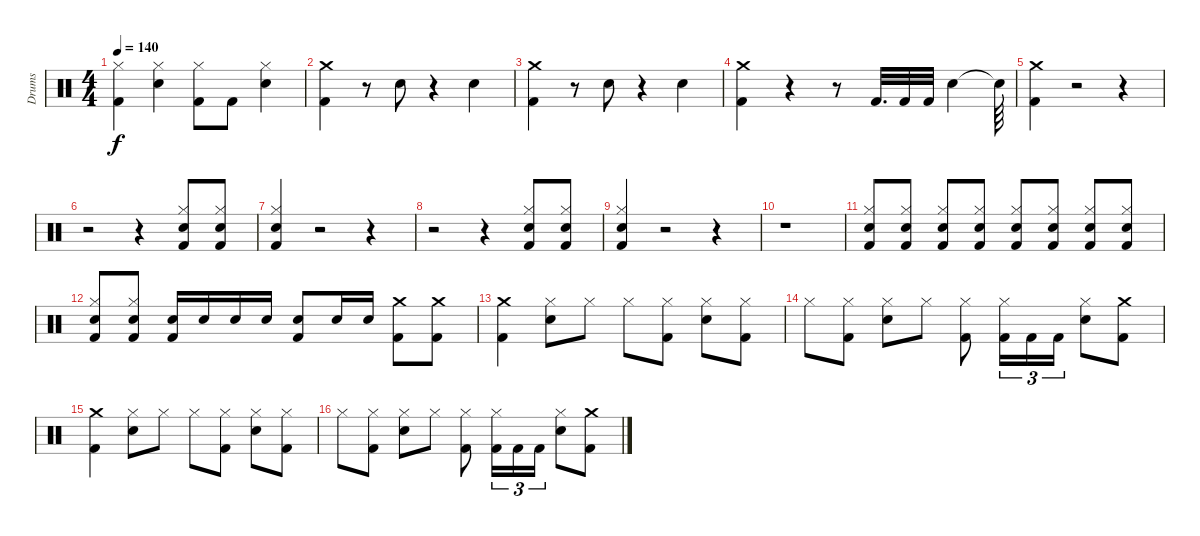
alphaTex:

\track ("Drums" "Drums") {instrument percussion}
\staff {score}
\articulation defaults
\ts (4 4)
\tempo 140
\clef neutral
\ks c
("Kick (hit) 2" "Hi-Hat (closed)").4{dy f} ("Snare (hit) 2" "Hi-Hat (closed)").4 ("Kick (hit) 2" "Hi-Hat (closed)").8 "Kick (hit) 2".8 ("Snare (hit) 2" "Hi-Hat (closed)").4 |
("Kick (hit) 2" "Crash medium (hit)").4 r.8 "Snare (hit) 2".8 r.4 "Snare (hit) 2".4 |
("Kick (hit) 2" "Crash medium (hit)").4 r.8 "Snare (hit) 2".8 r.4 "Snare (hit) 2".4 |
("Kick (hit) 2" "Crash medium (hit)").4 r.4 r.8 "Kick (hit) 2".32{d} "Kick (hit) 2".32 "Kick (hit) 2".32 "Snare (hit) 2".4 "Snare (hit)"{t}.64 |
("Kick (hit) 2" "Crash medium (hit)").4 r.2 r.4 |
r.2 r.4 ("Kick (hit) 2" "Snare (hit) 2" "Hi-Hat (closed)").8 ("Hi-Hat (closed)" "Snare (hit) 2" "Kick (hit) 2").8 |
("Kick (hit) 2" "Snare (hit) 2" "Hi-Hat (closed)").4 r.2 r.4 |
r.2 r.4 ("Kick (hit) 2" "Snare (hit) 2" "Hi-Hat (closed)").8 ("Hi-Hat (closed)" "Snare (hit) 2" "Kick (hit) 2").8 |
("Kick (hit) 2" "Snare (hit) 2" "Hi-Hat (closed)").4 r.2 r.4 |
r.1 |
("Snare (hit) 2" "Hi-Hat (closed)" "Kick (hit) 2").8 ("Hi-Hat (closed)" "Snare (hit) 2" "Kick (hit) 2").8 ("Snare (hit) 2" "Hi-Hat (closed)" "Kick (hit) 2").8 ("Hi-Hat (closed)" "Snare (hit) 2" "Kick (hit) 2").8 ("Snare (hit) 2" "Hi-Hat (closed)" "Kick (hit) 2").8 ("Hi-Hat (closed)" "Snare (hit) 2" "Kick (hit) 2").8 ("Snare (hit) 2" "Hi-Hat (closed)" "Kick (hit) 2").8 ("Hi-Hat (closed)" "Snare (hit) 2" "Kick (hit) 2").8 |
("Snare (hit) 2" "Hi-Hat (closed)" "Kick (hit) 2").8 ("Hi-Hat (closed)" "Snare (hit) 2" "Kick (hit) 2").8 ("Kick (hit) 2" "Snare (hit) 2").16 "Snare (hit) 2".16 "Snare (hit) 2".16 "Snare (hit) 2".16 ("Kick (hit) 2" "Snare (hit) 2").8 "Snare (hit) 2".16 "Snare (hit) 2".16 ("Crash medium (hit)" "Kick (hit) 2").8 ("Crash medium (hit)" "Kick (hit) 2").8 |
("Kick (hit) 2" "Crash medium (hit)").4 ("Snare (hit) 2" "Hi-Hat (closed)").8 "Hi-Hat (closed)".8 "Hi-Hat (closed)".8 ("Kick (hit) 2" "Hi-Hat (closed)").8 ("Snare (hit) 2" "Hi-Hat (closed)").8 ("Kick (hit) 2" "Hi-Hat (closed)").8 |
"Hi-Hat (closed)".8 ("Kick (hit) 2" "Hi-Hat (closed)").8 ("Snare (hit) 2" "Hi-Hat (closed)").8 "Hi-Hat (closed)".8 ("Kick (hit) 2" "Hi-Hat (closed)").8 ("Kick (hit) 2" "Hi-Hat (closed)").16{tu (3 2)} "Kick (hit) 2".16{tu (3 2)} "Kick (hit) 2".16{tu (3 2)} ("Snare (hit) 2" "Hi-Hat (closed)").8 ("Kick (hit) 2" "Crash medium (hit)").8 |
("Kick (hit) 2" "Crash medium (hit)").4 ("Snare (hit) 2" "Hi-Hat (closed)").8 "Hi-Hat (closed)".8 "Hi-Hat (closed)".8 ("Kick (hit) 2" "Hi-Hat (closed)").8 ("Snare (hit) 2" "Hi-Hat (closed)").8 ("Kick (hit) 2" "Hi-Hat (closed)").8 |
"Hi-Hat (closed)".8 ("Kick (hit) 2" "Hi-Hat (closed)").8 ("Snare (hit) 2" "Hi-Hat (closed)").8 "Hi-Hat (closed)".8 ("Kick (hit) 2" "Hi-Hat (closed)").8 ("Kick (hit) 2" "Hi-Hat (closed)").16{tu (3 2)} "Kick (hit) 2".16{tu (3 2)} "Kick (hit) 2".16{tu (3 2)} ("Snare (hit) 2" "Hi-Hat (closed)").8 ("Kick (hit) 2" "Crash medium (hit)").8
